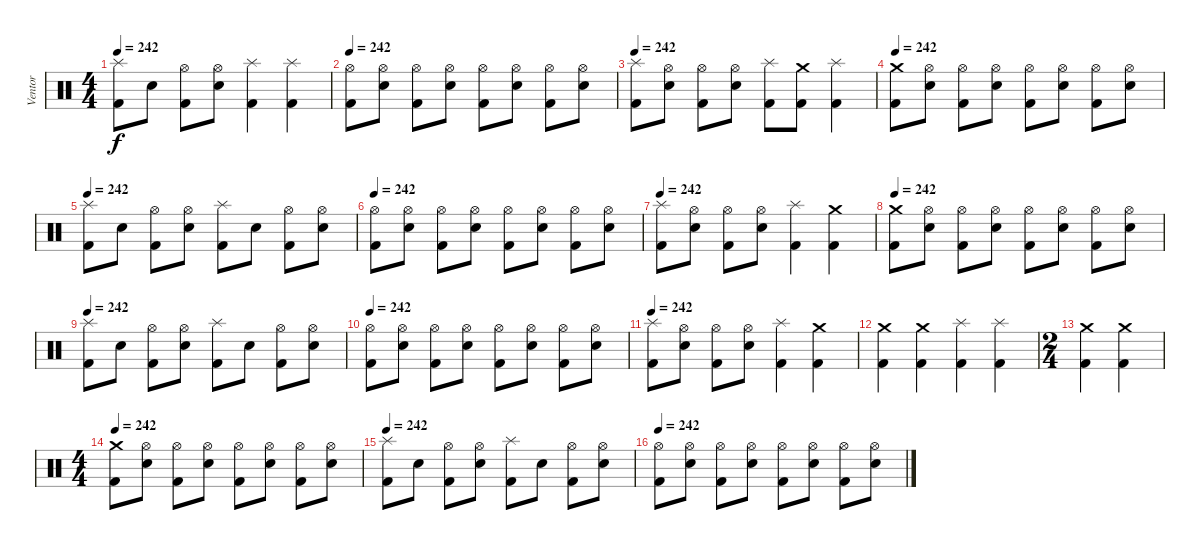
\track ("Ventor" "Ventor") {instrument percussion}
\staff {score}
\articulation defaults
\ts (4 4)
\tempo 242
\clef neutral
\ks c
("Splash (hit)" "Kick (hit) 2").8{dy f} "Snare (hit) 2".8 ("Hi-Hat (open)" "Kick (hit) 2").8 ("Hi-Hat (open)" "Snare (hit) 2").8 ("Splash (hit)" "Kick (hit) 2").4 ("Splash (hit)" "Kick (hit) 2").4 |
\tempo 242
("Hi-Hat (open)" "Kick (hit) 2").8 ("Hi-Hat (open)" "Snare (hit) 2").8 ("Hi-Hat (open)" "Kick (hit) 2").8 ("Hi-Hat (open)" "Snare (hit) 2").8 ("Hi-Hat (open)" "Kick (hit) 2").8 ("Hi-Hat (open)" "Snare (hit) 2").8 ("Hi-Hat (open)" "Kick (hit) 2").8 ("Hi-Hat (open)" "Snare (hit) 2").8 |
\tempo 242
("Splash (hit)" "Kick (hit) 2").8 ("Hi-Hat (open)" "Snare (hit) 2").8 ("Hi-Hat (open)" "Kick (hit) 2").8 ("Hi-Hat (open)" "Snare (hit) 2").8 ("Splash (hit)" "Kick (hit) 2").8 ("Crash medium (hit)" "Kick (hit) 2").8 ("Splash (hit)" "Kick (hit) 2").4 |
\tempo 242
("Crash medium (hit)" "Kick (hit) 2").8 ("Hi-Hat (open)" "Snare (hit) 2").8 ("Hi-Hat (open)" "Kick (hit) 2").8 ("Hi-Hat (open)" "Snare (hit) 2").8 ("Hi-Hat (open)" "Kick (hit) 2").8 ("Hi-Hat (open)" "Snare (hit) 2").8 ("Hi-Hat (open)" "Kick (hit) 2").8 ("Hi-Hat (open)" "Snare (hit) 2").8 |
\tempo 242
("Splash (hit)" "Kick (hit) 2").8 "Snare (hit) 2".8 ("Hi-Hat (open)" "Kick (hit) 2").8 ("Hi-Hat (open)" "Snare (hit) 2").8 ("Splash (hit)" "Kick (hit) 2").8 "Snare (hit) 2".8 ("Hi-Hat (open)" "Kick (hit) 2").8 ("Hi-Hat (open)" "Snare (hit) 2").8 |
\tempo 242
("Hi-Hat (open)" "Kick (hit) 2").8 ("Hi-Hat (open)" "Snare (hit) 2").8 ("Hi-Hat (open)" "Kick (hit) 2").8 ("Hi-Hat (open)" "Snare (hit) 2").8 ("Hi-Hat (open)" "Kick (hit) 2").8 ("Hi-Hat (open)" "Snare (hit) 2").8 ("Hi-Hat (open)" "Kick (hit) 2").8 ("Hi-Hat (open)" "Snare (hit) 2").8 |
\tempo 242
("Splash (hit)" "Kick (hit) 2").8 ("Hi-Hat (open)" "Snare (hit) 2").8 ("Hi-Hat (open)" "Kick (hit) 2").8 ("Hi-Hat (open)" "Snare (hit) 2").8 ("Splash (hit)" "Kick (hit) 2").4 ("Crash medium (hit)" "Kick (hit) 2").4 |
\tempo 242
("Crash medium (hit)" "Kick (hit) 2").8 ("Hi-Hat (open)" "Snare (hit) 2").8 ("Hi-Hat (open)" "Kick (hit) 2").8 ("Hi-Hat (open)" "Snare (hit) 2").8 ("Hi-Hat (open)" "Kick (hit) 2").8 ("Hi-Hat (open)" "Snare (hit) 2").8 ("Hi-Hat (open)" "Kick (hit) 2").8 ("Hi-Hat (open)" "Snare (hit) 2").8 |
\tempo 242
("Splash (hit)" "Kick (hit) 2").8 "Snare (hit) 2".8 ("Hi-Hat (open)" "Kick (hit) 2").8 ("Hi-Hat (open)" "Snare (hit) 2").8 ("Splash (hit)" "Kick (hit) 2").8 "Snare (hit) 2".8 ("Hi-Hat (open)" "Kick (hit) 2").8 ("Hi-Hat (open)" "Snare (hit) 2").8 |
\tempo 242
("Hi-Hat (open)" "Kick (hit) 2").8 ("Hi-Hat (open)" "Snare (hit) 2").8 ("Hi-Hat (open)" "Kick (hit) 2").8 ("Hi-Hat (open)" "Snare (hit) 2").8 ("Hi-Hat (open)" "Kick (hit) 2").8 ("Hi-Hat (open)" "Snare (hit) 2").8 ("Hi-Hat (open)" "Kick (hit) 2").8 ("Hi-Hat (open)" "Snare (hit) 2").8 |
\tempo 242
("Splash (hit)" "Kick (hit) 2").8 ("Hi-Hat (open)" "Snare (hit) 2").8 ("Hi-Hat (open)" "Kick (hit) 2").8 ("Hi-Hat (open)" "Snare (hit) 2").8 ("Splash (hit)" "Kick (hit) 2").4 ("Crash medium (hit)" "Kick (hit) 2").4 |
("Crash medium (hit)" "Kick (hit) 2").4 ("Crash medium (hit)" "Kick (hit) 2").4 ("Splash (hit)" "Kick (hit) 2").4 ("Splash (hit)" "Kick (hit) 2").4 |
\ts (2 4)
("Crash medium (hit)" "Kick (hit) 2").4 ("Crash medium (hit)" "Kick (hit) 2").4 |
\ts (4 4)
\tempo 242
("Crash medium (hit)" "Kick (hit) 2").8 ("Hi-Hat (open)" "Snare (hit) 2").8 ("Hi-Hat (open)" "Kick (hit) 2").8 ("Hi-Hat (open)" "Snare (hit) 2").8 ("Hi-Hat (open)" "Kick (hit) 2").8 ("Hi-Hat (open)" "Snare (hit) 2").8 ("Hi-Hat (open)" "Kick (hit) 2").8 ("Hi-Hat (open)" "Snare (hit) 2").8 |
\tempo 242
("Splash (hit)" "Kick (hit) 2").8 "Snare (hit) 2".8 ("Hi-Hat (open)" "Kick (hit) 2").8 ("Hi-Hat (open)" "Snare (hit) 2").8 ("Splash (hit)" "Kick (hit) 2").8 "Snare (hit) 2".8 ("Hi-Hat (open)" "Kick (hit) 2").8 ("Hi-Hat (open)" "Snare (hit) 2").8 |
\tempo 242
("Hi-Hat (open)" "Kick (hit) 2").8 ("Hi-Hat (open)" "Snare (hit) 2").8 ("Hi-Hat (open)" "Kick (hit) 2").8 ("Hi-Hat (open)" "Snare (hit) 2").8 ("Hi-Hat (open)" "Kick (hit) 2").8 ("Hi-Hat (open)" "Snare (hit) 2").8 ("Hi-Hat (open)" "Kick (hit) 2").8 ("Hi-Hat (open)" "Snare (hit) 2").8
